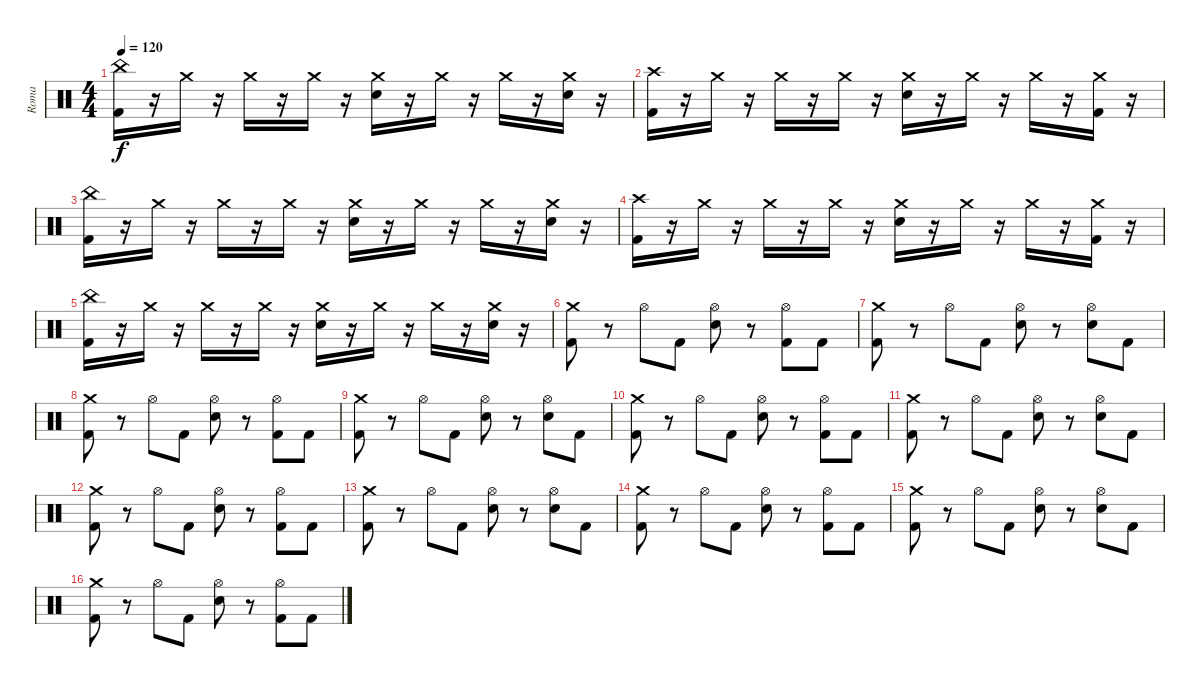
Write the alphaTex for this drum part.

\track ("Roma" "Roma") {instrument percussion}
\staff {score}
\articulation defaults
\ts (4 4)
\tempo 120
\clef neutral
\ks c
("China (hit)" "Kick (hit) 2").16{dy f} r.16 "Crash medium (hit)".16 r.16 "Crash medium (hit)".16 r.16 "Crash medium (hit)".16 r.16 ("Crash medium (hit)" "Electric Snare (hit)").16 r.16 "Crash medium (hit)".16 r.16 "Crash medium (hit)".16 r.16 ("Crash medium (hit)" "Electric Snare (hit)").16 r.16 |
("Crash high (hit)" "Kick (hit) 2").16 r.16 "Crash medium (hit)".16 r.16 "Crash medium (hit)".16 r.16 "Crash medium (hit)".16 r.16 ("Crash medium (hit)" "Electric Snare (hit)").16 r.16 "Crash medium (hit)".16 r.16 "Crash medium (hit)".16 r.16 ("Crash medium (hit)" "Kick (hit) 2").16 r.16 |
("China (hit)" "Kick (hit) 2").16 r.16 "Crash medium (hit)".16 r.16 "Crash medium (hit)".16 r.16 "Crash medium (hit)".16 r.16 ("Crash medium (hit)" "Electric Snare (hit)").16 r.16 "Crash medium (hit)".16 r.16 "Crash medium (hit)".16 r.16 ("Crash medium (hit)" "Electric Snare (hit)").16 r.16 |
("Crash high (hit)" "Kick (hit) 2").16 r.16 "Crash medium (hit)".16 r.16 "Crash medium (hit)".16 r.16 "Crash medium (hit)".16 r.16 ("Crash medium (hit)" "Electric Snare (hit)").16 r.16 "Crash medium (hit)".16 r.16 "Crash medium (hit)".16 r.16 ("Crash medium (hit)" "Kick (hit) 2").16 r.16 |
("China (hit)" "Kick (hit) 2").16 r.16 "Crash medium (hit)".16 r.16 "Crash medium (hit)".16 r.16 "Crash medium (hit)".16 r.16 ("Crash medium (hit)" "Electric Snare (hit)").16 r.16 "Crash medium (hit)".16 r.16 "Crash medium (hit)".16 r.16 ("Crash medium (hit)" "Electric Snare (hit)").16 r.16 |
("Crash medium (hit)" "Kick (hit) 2").8 r.8 "Hi-Hat (open)".8 "Kick (hit) 2".8 ("Hi-Hat (open)" "Electric Snare (hit)").8 r.8 ("Hi-Hat (open)" "Kick (hit) 2").8 "Kick (hit) 2".8 |
("Crash medium (hit)" "Kick (hit) 2").8 r.8 "Hi-Hat (open)".8 "Kick (hit) 2".8 ("Hi-Hat (open)" "Electric Snare (hit)").8 r.8 ("Hi-Hat (open)" "Electric Snare (hit)").8 "Kick (hit) 2".8 |
("Crash medium (hit)" "Kick (hit) 2").8 r.8 "Hi-Hat (open)".8 "Kick (hit) 2".8 ("Hi-Hat (open)" "Electric Snare (hit)").8 r.8 ("Hi-Hat (open)" "Kick (hit) 2").8 "Kick (hit) 2".8 |
("Crash medium (hit)" "Kick (hit) 2").8 r.8 "Hi-Hat (open)".8 "Kick (hit) 2".8 ("Hi-Hat (open)" "Electric Snare (hit)").8 r.8 ("Hi-Hat (open)" "Electric Snare (hit)").8 "Kick (hit) 2".8 |
("Crash medium (hit)" "Kick (hit) 2").8 r.8 "Hi-Hat (open)".8 "Kick (hit) 2".8 ("Hi-Hat (open)" "Electric Snare (hit)").8 r.8 ("Hi-Hat (open)" "Kick (hit) 2").8 "Kick (hit) 2".8 |
("Crash medium (hit)" "Kick (hit) 2").8 r.8 "Hi-Hat (open)".8 "Kick (hit) 2".8 ("Hi-Hat (open)" "Electric Snare (hit)").8 r.8 ("Hi-Hat (open)" "Electric Snare (hit)").8 "Kick (hit) 2".8 |
("Crash medium (hit)" "Kick (hit) 2").8 r.8 "Hi-Hat (open)".8 "Kick (hit) 2".8 ("Hi-Hat (open)" "Electric Snare (hit)").8 r.8 ("Hi-Hat (open)" "Kick (hit) 2").8 "Kick (hit) 2".8 |
("Crash medium (hit)" "Kick (hit) 2").8 r.8 "Hi-Hat (open)".8 "Kick (hit) 2".8 ("Hi-Hat (open)" "Electric Snare (hit)").8 r.8 ("Hi-Hat (open)" "Electric Snare (hit)").8 "Kick (hit) 2".8 |
("Crash medium (hit)" "Kick (hit) 2").8 r.8 "Hi-Hat (open)".8 "Kick (hit) 2".8 ("Hi-Hat (open)" "Electric Snare (hit)").8 r.8 ("Hi-Hat (open)" "Kick (hit) 2").8 "Kick (hit) 2".8 |
("Crash medium (hit)" "Kick (hit) 2").8 r.8 "Hi-Hat (open)".8 "Kick (hit) 2".8 ("Hi-Hat (open)" "Electric Snare (hit)").8 r.8 ("Hi-Hat (open)" "Electric Snare (hit)").8 "Kick (hit) 2".8 |
("Crash medium (hit)" "Kick (hit) 2").8 r.8 "Hi-Hat (open)".8 "Kick (hit) 2".8 ("Hi-Hat (open)" "Electric Snare (hit)").8 r.8 ("Hi-Hat (open)" "Kick (hit) 2").8 "Kick (hit) 2".8
